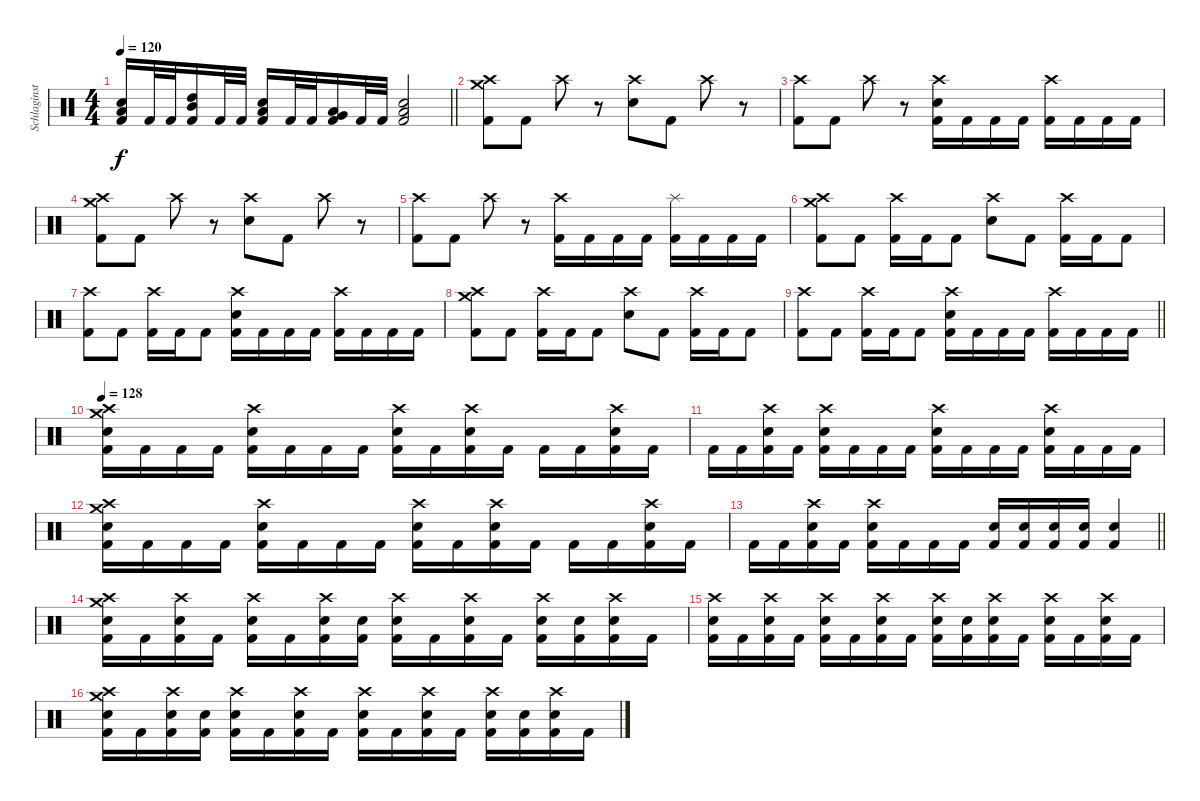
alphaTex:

\track ("Schlaginstrumente - Auswahl" "Schlaginst") {instrument percussion}
\staff {score}
\articulation defaults
\ts (4 4)
\tempo 120
\clef neutral
\barLineRight lightlight
\ks c
("Low Floor Tom (hit)" "Electric Snare (hit)" "Kick (hit) 2").16{dy f} "Kick (hit) 2".32 "Kick (hit) 2".32 ("High Tom (hit)" "Mid Tom (hit)" "Kick (hit) 2").16 "Kick (hit) 2".32 "Kick (hit) 2".32 ("Low Floor Tom (hit)" "Electric Snare (hit)" "Kick (hit) 2").16 "Kick (hit) 2".32 "Kick (hit) 2".32 ("Very Low Tom (hit)" "Low Tom (hit)" "Kick (hit) 2").16 "Kick (hit) 2".32 "Kick (hit) 2".32 ("Low Floor Tom (hit)" "Electric Snare (hit)" "Kick (hit) 2").2 |
("Crash medium (hit)" "Crash high (hit)" "Kick (hit) 2").8 "Kick (hit) 2".8 "Crash high (hit)".8 r.8 ("Crash high (hit)" "Electric Snare (hit)").8 "Kick (hit) 2".8 "Crash high (hit)".8 r.8 |
("Crash high (hit)" "Kick (hit) 2").8 "Kick (hit) 2".8 "Crash high (hit)".8 r.8 ("Crash high (hit)" "Electric Snare (hit)" "Kick (hit) 2").16 "Kick (hit) 2".16 "Kick (hit) 2".16 "Kick (hit) 2".16 ("Crash high (hit)" "Kick (hit) 2").16 "Kick (hit) 2".16 "Kick (hit) 2".16 "Kick (hit) 2".16 |
("Crash medium (hit)" "Crash high (hit)" "Kick (hit) 2").8 "Kick (hit) 2".8 "Crash high (hit)".8 r.8 ("Crash high (hit)" "Electric Snare (hit)").8 "Kick (hit) 2".8 "Crash high (hit)".8 r.8 |
("Crash high (hit)" "Kick (hit) 2").8 "Kick (hit) 2".8 "Crash high (hit)".8 r.8 ("Crash high (hit)" "Kick (hit) 2").16 "Kick (hit) 2".16 "Kick (hit) 2".16 "Kick (hit) 2".16 ("Splash (hit)" "Kick (hit) 2").16 "Kick (hit) 2".16 "Kick (hit) 2".16 "Kick (hit) 2".16 |
("Crash medium (hit)" "Crash high (hit)" "Kick (hit) 2").8 "Kick (hit) 2".8 ("Crash high (hit)" "Kick (hit) 2").16 "Kick (hit) 2".16 "Kick (hit) 2".8 ("Crash high (hit)" "Electric Snare (hit)").8 "Kick (hit) 2".8 ("Crash high (hit)" "Kick (hit) 2").16 "Kick (hit) 2".16 "Kick (hit) 2".8 |
("Crash high (hit)" "Kick (hit) 2").8 "Kick (hit) 2".8 ("Crash high (hit)" "Kick (hit) 2").16 "Kick (hit) 2".16 "Kick (hit) 2".8 ("Crash high (hit)" "Electric Snare (hit)" "Kick (hit) 2").16 "Kick (hit) 2".16 "Kick (hit) 2".16 "Kick (hit) 2".16 ("Crash high (hit)" "Kick (hit) 2").16 "Kick (hit) 2".16 "Kick (hit) 2".16 "Kick (hit) 2".16 |
("Crash medium (hit)" "Crash high (hit)" "Kick (hit) 2").8 "Kick (hit) 2".8 ("Crash high (hit)" "Kick (hit) 2").16 "Kick (hit) 2".16 "Kick (hit) 2".8 ("Crash high (hit)" "Electric Snare (hit)").8 "Kick (hit) 2".8 ("Crash high (hit)" "Kick (hit) 2").16 "Kick (hit) 2".16 "Kick (hit) 2".8 |
\barLineRight lightlight
("Crash high (hit)" "Kick (hit) 2").8 "Kick (hit) 2".8 ("Crash high (hit)" "Kick (hit) 2").16 "Kick (hit) 2".16 "Kick (hit) 2".8 ("Crash high (hit)" "Electric Snare (hit)" "Kick (hit) 2").16 "Kick (hit) 2".16 "Kick (hit) 2".16 "Kick (hit) 2".16 ("Crash high (hit)" "Kick (hit) 2").16 "Kick (hit) 2".16 "Kick (hit) 2".16 "Kick (hit) 2".16 |
\tempo 128
("Crash medium (hit)" "Crash high (hit)" "Electric Snare (hit)" "Kick (hit) 2").16 "Kick (hit) 2".16 "Kick (hit) 2".16 "Kick (hit) 2".16 ("Crash high (hit)" "Electric Snare (hit)" "Kick (hit) 2").16 "Kick (hit) 2".16 "Kick (hit) 2".16 "Kick (hit) 2".16 ("Crash high (hit)" "Electric Snare (hit)" "Kick (hit) 2").16 "Kick (hit) 2".16 ("Crash high (hit)" "Electric Snare (hit)" "Kick (hit) 2").16 "Kick (hit) 2".16 "Kick (hit) 2".16 "Kick (hit) 2".16 ("Crash high (hit)" "Electric Snare (hit)" "Kick (hit) 2").16 "Kick (hit) 2".16 |
"Kick (hit) 2".16 "Kick (hit) 2".16 ("Crash high (hit)" "Electric Snare (hit)" "Kick (hit) 2").16 "Kick (hit) 2".16 ("Crash high (hit)" "Electric Snare (hit)" "Kick (hit) 2").16 "Kick (hit) 2".16 "Kick (hit) 2".16 "Kick (hit) 2".16 ("Crash high (hit)" "Electric Snare (hit)" "Kick (hit) 2").16 "Kick (hit) 2".16 "Kick (hit) 2".16 "Kick (hit) 2".16 ("Crash high (hit)" "Electric Snare (hit)" "Kick (hit) 2").16 "Kick (hit) 2".16 "Kick (hit) 2".16 "Kick (hit) 2".16 |
("Crash medium (hit)" "Crash high (hit)" "Electric Snare (hit)" "Kick (hit) 2").16 "Kick (hit) 2".16 "Kick (hit) 2".16 "Kick (hit) 2".16 ("Crash high (hit)" "Electric Snare (hit)" "Kick (hit) 2").16 "Kick (hit) 2".16 "Kick (hit) 2".16 "Kick (hit) 2".16 ("Crash high (hit)" "Electric Snare (hit)" "Kick (hit) 2").16 "Kick (hit) 2".16 ("Crash high (hit)" "Electric Snare (hit)" "Kick (hit) 2").16 "Kick (hit) 2".16 "Kick (hit) 2".16 "Kick (hit) 2".16 ("Crash high (hit)" "Electric Snare (hit)" "Kick (hit) 2").16 "Kick (hit) 2".16 |
\barLineRight lightlight "Kick (hit) 2".16 "Kick (hit) 2".16
("Crash high (hit)" "Electric Snare (hit)" "Kick (hit) 2").16 "Kick (hit) 2".16 ("Crash high (hit)" "Electric Snare (hit)" "Kick (hit) 2").16 "Kick (hit) 2".16 "Kick (hit) 2".16 "Kick (hit) 2".16 ("Electric Snare (hit)" "Kick (hit) 2").16 ("Electric Snare (hit)" "Kick (hit) 2").16 ("Electric Snare (hit)" "Kick (hit) 2").16 ("Electric Snare (hit)" "Kick (hit) 2").16 ("Electric Snare (hit)" "Kick (hit) 2").4 |
("Crash medium (hit)" "Crash high (hit)" "Electric Snare (hit)" "Kick (hit) 2").16 "Kick (hit) 2".16 ("Crash high (hit)" "Electric Snare (hit)" "Kick (hit) 2").16 "Kick (hit) 2".16 ("Crash high (hit)" "Electric Snare (hit)" "Kick (hit) 2").16 "Kick (hit) 2".16 ("Crash high (hit)" "Electric Snare (hit)" "Kick (hit) 2").16 ("Electric Snare (hit)" "Kick (hit) 2").16 ("Crash high (hit)" "Electric Snare (hit)" "Kick (hit) 2").16 "Kick (hit) 2".16 ("Crash high (hit)" "Electric Snare (hit)" "Kick (hit) 2").16 "Kick (hit) 2".16 ("Crash high (hit)" "Electric Snare (hit)" "Kick (hit) 2").16 ("Electric Snare (hit)" "Kick (hit) 2").16 ("Crash high (hit)" "Electric Snare (hit)" "Kick (hit) 2").16 "Kick (hit) 2".16 |
("Crash high (hit)" "Electric Snare (hit)" "Kick (hit) 2").16 "Kick (hit) 2".16 ("Crash high (hit)" "Electric Snare (hit)" "Kick (hit) 2").16 "Kick (hit) 2".16 ("Crash high (hit)" "Electric Snare (hit)" "Kick (hit) 2").16 "Kick (hit) 2".16 ("Crash high (hit)" "Electric Snare (hit)" "Kick (hit) 2").16 "Kick (hit) 2".16 ("Crash high (hit)" "Electric Snare (hit)" "Kick (hit) 2").16 ("Electric Snare (hit)" "Kick (hit) 2").16 ("Crash high (hit)" "Electric Snare (hit)" "Kick (hit) 2").16 "Kick (hit) 2".16 ("Crash high (hit)" "Electric Snare (hit)" "Kick (hit) 2").16 "Kick (hit) 2".16 ("Crash high (hit)" "Electric Snare (hit)" "Kick (hit) 2").16 "Kick (hit) 2".16 |
("Crash medium (hit)" "Crash high (hit)" "Electric Snare (hit)" "Kick (hit) 2").16 "Kick (hit) 2".16 ("Crash high (hit)" "Electric Snare (hit)" "Kick (hit) 2").16 ("Electric Snare (hit)" "Kick (hit) 2").16 ("Crash high (hit)" "Electric Snare (hit)" "Kick (hit) 2").16 "Kick (hit) 2".16 ("Crash high (hit)" "Electric Snare (hit)" "Kick (hit) 2").16 "Kick (hit) 2".16 ("Crash high (hit)" "Electric Snare (hit)" "Kick (hit) 2").16 "Kick (hit) 2".16 ("Crash high (hit)" "Electric Snare (hit)" "Kick (hit) 2").16 "Kick (hit) 2".16 ("Crash high (hit)" "Electric Snare (hit)" "Kick (hit) 2").16 ("Electric Snare (hit)" "Kick (hit) 2").16 ("Crash high (hit)" "Electric Snare (hit)" "Kick (hit) 2").16 "Kick (hit) 2".16
